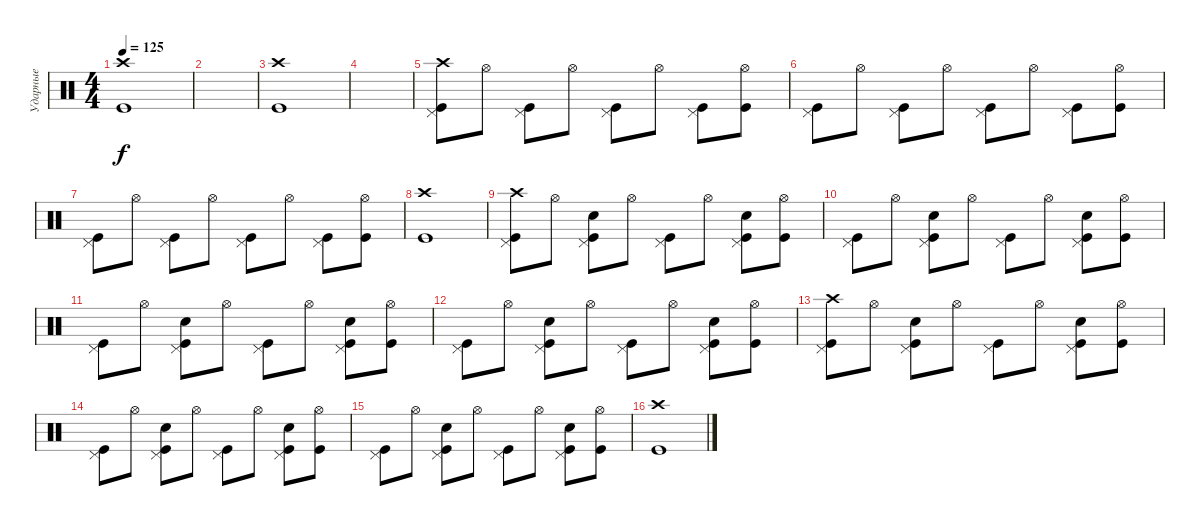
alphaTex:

\track ("Ударные" "Ударные") {instrument percussion}
\staff {score}
\articulation defaults
\ts (4 4)
\tempo 125
\clef neutral
\ks c
("Kick (hit)" "Crash high (hit)").1{dy f} |
|
("Kick (hit)" "Crash high (hit)").1 |
|
("Kick (hit)" "Pedal Hi-Hat (hit)" "Crash high (hit)").8 "Hi-Hat (open)".8 ("Kick (hit)" "Pedal Hi-Hat (hit)").8 "Hi-Hat (open)".8 ("Kick (hit)" "Pedal Hi-Hat (hit)").8 "Hi-Hat (open)".8 ("Kick (hit)" "Pedal Hi-Hat (hit)").8 ("Kick (hit)" "Hi-Hat (open)").8 |
("Kick (hit)" "Pedal Hi-Hat (hit)").8 "Hi-Hat (open)".8 ("Kick (hit)" "Pedal Hi-Hat (hit)").8 "Hi-Hat (open)".8 ("Kick (hit)" "Pedal Hi-Hat (hit)").8 "Hi-Hat (open)".8 ("Kick (hit)" "Pedal Hi-Hat (hit)").8 ("Kick (hit)" "Hi-Hat (open)").8 |
("Kick (hit)" "Pedal Hi-Hat (hit)").8 "Hi-Hat (open)".8 ("Kick (hit)" "Pedal Hi-Hat (hit)").8 "Hi-Hat (open)".8 ("Kick (hit)" "Pedal Hi-Hat (hit)").8 "Hi-Hat (open)".8 ("Kick (hit)" "Pedal Hi-Hat (hit)").8 ("Kick (hit)" "Hi-Hat (open)").8 |
("Kick (hit)" "Crash high (hit)").1 |
("Kick (hit)" "Pedal Hi-Hat (hit)" "Crash high (hit)").8 "Hi-Hat (open)".8 ("Kick (hit)" "Pedal Hi-Hat (hit)" "Hand Clap (hit)").8 "Hi-Hat (open)".8 ("Kick (hit)" "Pedal Hi-Hat (hit)").8 "Hi-Hat (open)".8 ("Kick (hit)" "Pedal Hi-Hat (hit)" "Hand Clap (hit)").8 ("Kick (hit)" "Hi-Hat (open)").8 |
("Kick (hit)" "Pedal Hi-Hat (hit)").8 "Hi-Hat (open)".8 ("Kick (hit)" "Pedal Hi-Hat (hit)" "Hand Clap (hit)").8 "Hi-Hat (open)".8 ("Kick (hit)" "Pedal Hi-Hat (hit)").8 "Hi-Hat (open)".8 ("Kick (hit)" "Pedal Hi-Hat (hit)" "Hand Clap (hit)").8 ("Kick (hit)" "Hi-Hat (open)").8 |
("Kick (hit)" "Pedal Hi-Hat (hit)").8 "Hi-Hat (open)".8 ("Kick (hit)" "Pedal Hi-Hat (hit)" "Hand Clap (hit)").8 "Hi-Hat (open)".8 ("Kick (hit)" "Pedal Hi-Hat (hit)").8 "Hi-Hat (open)".8 ("Kick (hit)" "Pedal Hi-Hat (hit)" "Hand Clap (hit)").8 ("Kick (hit)" "Hi-Hat (open)").8 |
("Kick (hit)" "Pedal Hi-Hat (hit)").8 "Hi-Hat (open)".8 ("Kick (hit)" "Pedal Hi-Hat (hit)" "Hand Clap (hit)").8 "Hi-Hat (open)".8 ("Kick (hit)" "Pedal Hi-Hat (hit)").8 "Hi-Hat (open)".8 ("Kick (hit)" "Pedal Hi-Hat (hit)" "Hand Clap (hit)").8 ("Kick (hit)" "Hi-Hat (open)").8 |
("Kick (hit)" "Pedal Hi-Hat (hit)" "Crash high (hit)").8 "Hi-Hat (open)".8 ("Kick (hit)" "Pedal Hi-Hat (hit)" "Hand Clap (hit)").8 "Hi-Hat (open)".8 ("Kick (hit)" "Pedal Hi-Hat (hit)").8 "Hi-Hat (open)".8 ("Kick (hit)" "Pedal Hi-Hat (hit)" "Hand Clap (hit)").8 ("Kick (hit)" "Hi-Hat (open)").8 |
("Kick (hit)" "Pedal Hi-Hat (hit)").8 "Hi-Hat (open)".8 ("Kick (hit)" "Pedal Hi-Hat (hit)" "Hand Clap (hit)").8 "Hi-Hat (open)".8 ("Kick (hit)" "Pedal Hi-Hat (hit)").8 "Hi-Hat (open)".8 ("Kick (hit)" "Pedal Hi-Hat (hit)" "Hand Clap (hit)").8 ("Kick (hit)" "Hi-Hat (open)").8 |
("Kick (hit)" "Pedal Hi-Hat (hit)").8 "Hi-Hat (open)".8 ("Kick (hit)" "Pedal Hi-Hat (hit)" "Hand Clap (hit)").8 "Hi-Hat (open)".8 ("Kick (hit)" "Pedal Hi-Hat (hit)").8 "Hi-Hat (open)".8 ("Kick (hit)" "Pedal Hi-Hat (hit)" "Hand Clap (hit)").8 ("Kick (hit)" "Hi-Hat (open)").8 |
("Kick (hit)" "Crash high (hit)").1
